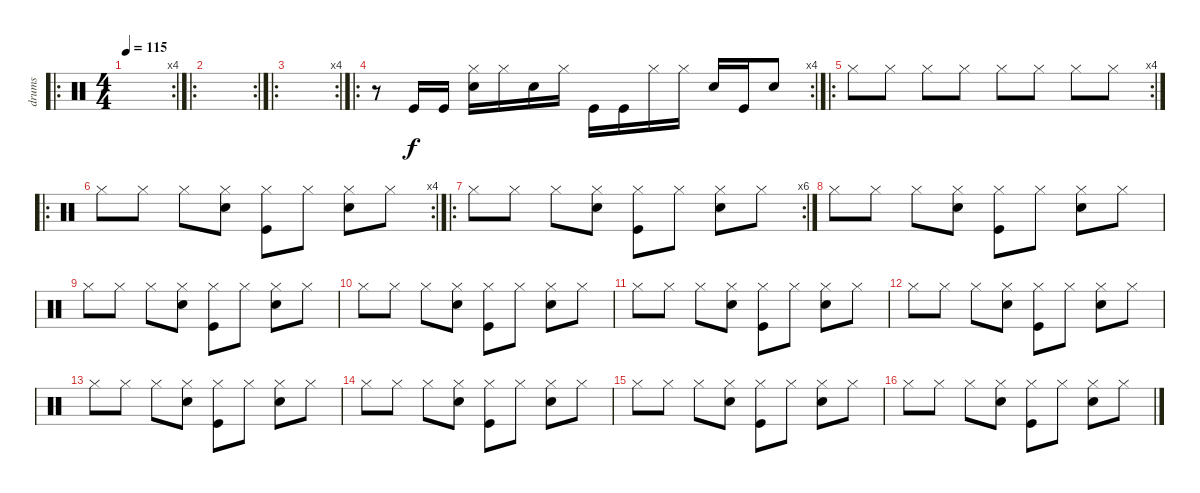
\track ("drums" "drums") {instrument percussion}
\staff {score}
\articulation defaults
\ro
\rc 4
\ts (4 4)
\tempo 115
\clef neutral
\ks c
|
\ro
\rc 2
|
\ro
\rc 4
|
\ro
\rc 4
r.8 "Kick (hit)".16 "Kick (hit)".16 ("Hi-Hat (closed)" "Snare (hit) 2").16 "Hi-Hat (closed)".16 "Snare (hit) 2".16 "Hi-Hat (closed)".16 "Kick (hit)".16 "Kick (hit)".16 "Hi-Hat (closed)".16 "Hi-Hat (closed)".16 "Snare (hit) 2".16 "Kick (hit)".16 "Snare (hit) 2".8 |
\ro
\rc 4 "Hi-Hat (closed)".8 "Hi-Hat (closed)".8 "Hi-Hat (closed)".8 "Hi-Hat (closed)".8 "Hi-Hat (closed)".8 "Hi-Hat (closed)".8 "Hi-Hat (closed)".8 "Hi-Hat (closed)".8
|
\ro
\rc 4 "Hi-Hat (closed)".8 "Hi-Hat (closed)".8 "Hi-Hat (closed)".8
("Hi-Hat (closed)" "Snare (hit) 2").8 ("Hi-Hat (closed)" "Kick (hit)").8 "Hi-Hat (closed)".8 ("Hi-Hat (closed)" "Snare (hit) 2").8 "Hi-Hat (closed)".8 |
\ro
\rc 6 "Hi-Hat (closed)".8 "Hi-Hat (closed)".8 "Hi-Hat (closed)".8
("Hi-Hat (closed)" "Snare (hit) 2").8 ("Hi-Hat (closed)" "Kick (hit)").8 "Hi-Hat (closed)".8 ("Hi-Hat (closed)" "Snare (hit) 2").8 "Hi-Hat (closed)".8 |
"Hi-Hat (closed)".8 "Hi-Hat (closed)".8 "Hi-Hat (closed)".8 ("Hi-Hat (closed)" "Snare (hit) 2").8 ("Hi-Hat (closed)" "Kick (hit)").8 "Hi-Hat (closed)".8 ("Hi-Hat (closed)" "Snare (hit) 2").8 "Hi-Hat (closed)".8 |
"Hi-Hat (closed)".8 "Hi-Hat (closed)".8 "Hi-Hat (closed)".8 ("Hi-Hat (closed)" "Snare (hit) 2").8 ("Hi-Hat (closed)" "Kick (hit)").8 "Hi-Hat (closed)".8 ("Hi-Hat (closed)" "Snare (hit) 2").8 "Hi-Hat (closed)".8 |
"Hi-Hat (closed)".8 "Hi-Hat (closed)".8 "Hi-Hat (closed)".8 ("Hi-Hat (closed)" "Snare (hit) 2").8 ("Hi-Hat (closed)" "Kick (hit)").8 "Hi-Hat (closed)".8 ("Hi-Hat (closed)" "Snare (hit) 2").8 "Hi-Hat (closed)".8 |
"Hi-Hat (closed)".8 "Hi-Hat (closed)".8 "Hi-Hat (closed)".8 ("Hi-Hat (closed)" "Snare (hit) 2").8 ("Hi-Hat (closed)" "Kick (hit)").8 "Hi-Hat (closed)".8 ("Hi-Hat (closed)" "Snare (hit) 2").8 "Hi-Hat (closed)".8 |
"Hi-Hat (closed)".8 "Hi-Hat (closed)".8 "Hi-Hat (closed)".8 ("Hi-Hat (closed)" "Snare (hit) 2").8 ("Hi-Hat (closed)" "Kick (hit)").8 "Hi-Hat (closed)".8 ("Hi-Hat (closed)" "Snare (hit) 2").8 "Hi-Hat (closed)".8 |
"Hi-Hat (closed)".8 "Hi-Hat (closed)".8 "Hi-Hat (closed)".8 ("Hi-Hat (closed)" "Snare (hit) 2").8 ("Hi-Hat (closed)" "Kick (hit)").8 "Hi-Hat (closed)".8 ("Hi-Hat (closed)" "Snare (hit) 2").8 "Hi-Hat (closed)".8 |
"Hi-Hat (closed)".8 "Hi-Hat (closed)".8 "Hi-Hat (closed)".8 ("Hi-Hat (closed)" "Snare (hit) 2").8 ("Hi-Hat (closed)" "Kick (hit)").8 "Hi-Hat (closed)".8 ("Hi-Hat (closed)" "Snare (hit) 2").8 "Hi-Hat (closed)".8 |
"Hi-Hat (closed)".8 "Hi-Hat (closed)".8 "Hi-Hat (closed)".8 ("Hi-Hat (closed)" "Snare (hit) 2").8 ("Hi-Hat (closed)" "Kick (hit)").8 "Hi-Hat (closed)".8 ("Hi-Hat (closed)" "Snare (hit) 2").8 "Hi-Hat (closed)".8 |
"Hi-Hat (closed)".8 "Hi-Hat (closed)".8 "Hi-Hat (closed)".8 ("Hi-Hat (closed)" "Snare (hit) 2").8 ("Hi-Hat (closed)" "Kick (hit)").8 "Hi-Hat (closed)".8 ("Hi-Hat (closed)" "Snare (hit) 2").8 "Hi-Hat (closed)".8
